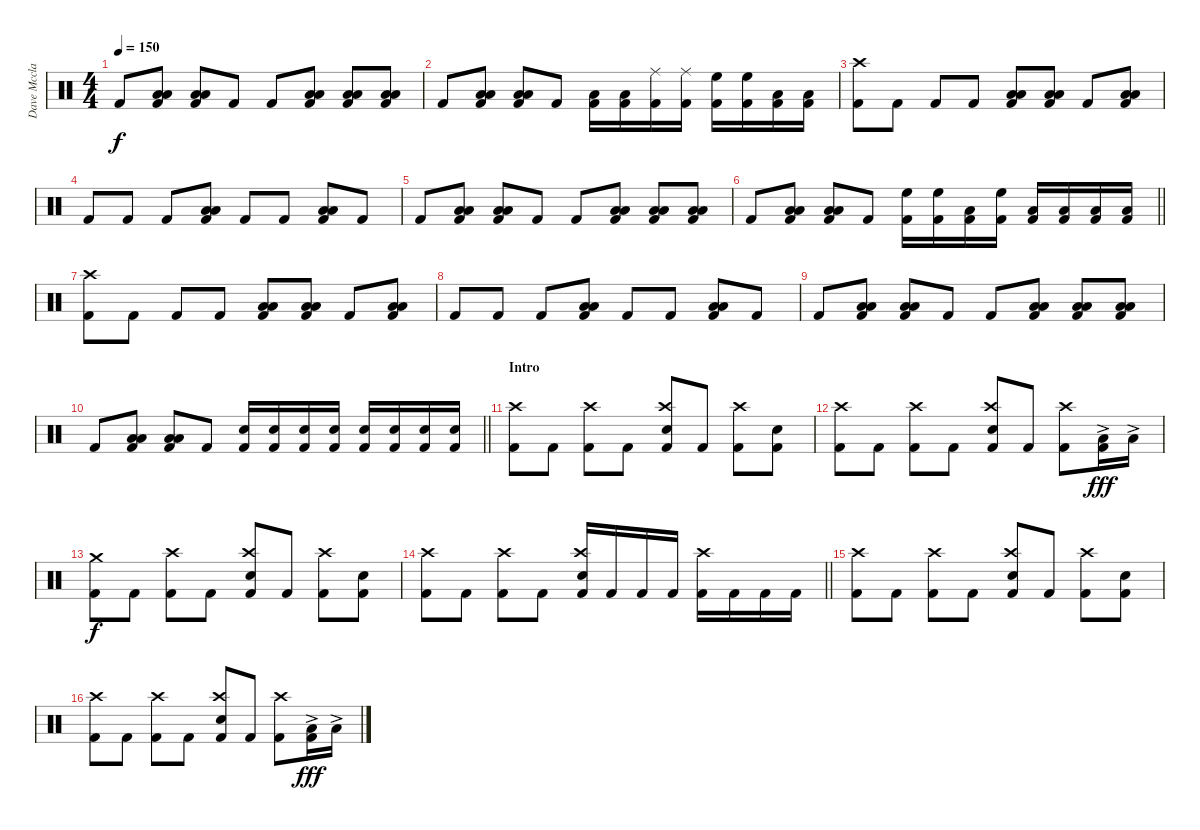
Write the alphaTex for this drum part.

\track ("Dave Mcclain" "Dave Mccla") {instrument percussion}
\staff {score}
\articulation defaults
\ts (4 4)
\tempo 150
\clef neutral
\ks c "Kick (hit) 2".8{dy f}
("Low Tom (hit)" "Low Floor Tom (hit)" "Kick (hit) 2").8 ("Low Tom (hit)" "Low Floor Tom (hit)" "Kick (hit) 2").8 "Kick (hit) 2".8 "Kick (hit) 2".8 ("Low Tom (hit)" "Low Floor Tom (hit)" "Kick (hit) 2").8 ("Low Tom (hit)" "Low Floor Tom (hit)" "Kick (hit) 2").8 ("Low Tom (hit)" "Low Floor Tom (hit)" "Kick (hit) 2").8 |
"Kick (hit) 2".8 ("Low Tom (hit)" "Low Floor Tom (hit)" "Kick (hit) 2").8 ("Low Tom (hit)" "Low Floor Tom (hit)" "Kick (hit) 2").8 "Kick (hit) 2".8 ("Low Tom (hit)" "Kick (hit) 2").16 ("Low Tom (hit)" "Kick (hit) 2").16 ("Ride (middle)" "Kick (hit) 2").16 ("Ride (middle)" "Kick (hit) 2").16 ("High Floor Tom (hit)" "Kick (hit) 2").16 ("High Floor Tom (hit)" "Kick (hit) 2").16 ("Low Tom (hit)" "Kick (hit) 2").16 ("Low Floor Tom (hit)" "Kick (hit) 2").16 |
("Crash high (hit)" "Kick (hit) 2").8 "Kick (hit) 2".8 "Kick (hit) 2".8 "Kick (hit) 2".8 ("Low Tom (hit)" "Low Floor Tom (hit)" "Kick (hit) 2").8 ("Low Tom (hit)" "Low Floor Tom (hit)" "Kick (hit) 2").8 "Kick (hit) 2".8 ("Low Tom (hit)" "Low Floor Tom (hit)" "Kick (hit) 2").8 |
"Kick (hit) 2".8 "Kick (hit) 2".8 "Kick (hit) 2".8 ("Low Tom (hit)" "Low Floor Tom (hit)" "Kick (hit) 2").8 "Kick (hit) 2".8 "Kick (hit) 2".8 ("Low Tom (hit)" "Low Floor Tom (hit)" "Kick (hit) 2").8 "Kick (hit) 2".8 |
"Kick (hit) 2".8 ("Low Tom (hit)" "Low Floor Tom (hit)" "Kick (hit) 2").8 ("Low Tom (hit)" "Low Floor Tom (hit)" "Kick (hit) 2").8 "Kick (hit) 2".8 "Kick (hit) 2".8 ("Low Tom (hit)" "Low Floor Tom (hit)" "Kick (hit) 2").8 ("Low Tom (hit)" "Low Floor Tom (hit)" "Kick (hit) 2").8 ("Low Tom (hit)" "Low Floor Tom (hit)" "Kick (hit) 2").8 |
\barLineRight lightlight "Kick (hit) 2".8
("Low Tom (hit)" "Low Floor Tom (hit)" "Kick (hit) 2").8 ("Low Tom (hit)" "Low Floor Tom (hit)" "Kick (hit) 2").8 "Kick (hit) 2".8 ("High Floor Tom (hit)" "Kick (hit) 2").16 ("High Floor Tom (hit)" "Kick (hit) 2").16 ("Low Tom (hit)" "Kick (hit) 2").16 ("High Floor Tom (hit)" "Kick (hit) 2").16 ("Low Tom (hit)" "Kick (hit) 2").16 ("Low Tom (hit)" "Kick (hit) 2").16 ("Low Floor Tom (hit)" "Kick (hit) 2").16 ("Low Floor Tom (hit)" "Kick (hit) 2").16 |
\section ("" "")
("Crash high (hit)" "Kick (hit) 2").8 "Kick (hit) 2".8 "Kick (hit) 2".8 "Kick (hit) 2".8 ("Low Tom (hit)" "Low Floor Tom (hit)" "Kick (hit) 2").8 ("Low Tom (hit)" "Low Floor Tom (hit)" "Kick (hit) 2").8 "Kick (hit) 2".8 ("Low Tom (hit)" "Low Floor Tom (hit)" "Kick (hit) 2").8 |
"Kick (hit) 2".8 "Kick (hit) 2".8 "Kick (hit) 2".8 ("Low Tom (hit)" "Low Floor Tom (hit)" "Kick (hit) 2").8 "Kick (hit) 2".8 "Kick (hit) 2".8 ("Low Tom (hit)" "Low Floor Tom (hit)" "Kick (hit) 2").8 "Kick (hit) 2".8 |
"Kick (hit) 2".8 ("Low Tom (hit)" "Low Floor Tom (hit)" "Kick (hit) 2").8 ("Low Tom (hit)" "Low Floor Tom (hit)" "Kick (hit) 2").8 "Kick (hit) 2".8 "Kick (hit) 2".8 ("Low Tom (hit)" "Low Floor Tom (hit)" "Kick (hit) 2").8 ("Low Tom (hit)" "Low Floor Tom (hit)" "Kick (hit) 2").8 ("Low Tom (hit)" "Low Floor Tom (hit)" "Kick (hit) 2").8 |
\barLineRight lightlight "Kick (hit) 2".8
("Low Tom (hit)" "Low Floor Tom (hit)" "Kick (hit) 2").8 ("Low Tom (hit)" "Low Floor Tom (hit)" "Kick (hit) 2").8 "Kick (hit) 2".8 ("Electric Snare (hit)" "Kick (hit) 2").16 ("Electric Snare (hit)" "Kick (hit) 2").16 ("Electric Snare (hit)" "Kick (hit) 2").16 ("Electric Snare (hit)" "Kick (hit) 2").16 ("Electric Snare (hit)" "Kick (hit) 2").16 ("Electric Snare (hit)" "Kick (hit) 2").16 ("Electric Snare (hit)" "Kick (hit) 2").16 ("Electric Snare (hit)" "Kick (hit) 2").16 |
\section ("" "Intro")
("Crash high (hit)" "Kick (hit) 2").8 "Kick (hit) 2".8 ("Crash high (hit)" "Kick (hit) 2").8 "Kick (hit) 2".8 ("Crash high (hit)" "Electric Snare (hit)" "Kick (hit) 2").8 "Kick (hit) 2".8 ("Crash high (hit)" "Kick (hit) 2").8 ("Electric Snare (hit)" "Kick (hit) 2").8 |
("Crash high (hit)" "Kick (hit) 2").8 "Kick (hit) 2".8 ("Crash high (hit)" "Kick (hit) 2").8 "Kick (hit) 2".8 ("Crash high (hit)" "Electric Snare (hit)" "Kick (hit) 2").8 "Kick (hit) 2".8 ("Crash high (hit)" "Kick (hit) 2").8 ("Low Tom (hit)"{ac} "Kick (hit) 2").16{dy fff} "Low Floor Tom (hit)"{ac}.16 |
("Crash medium (hit)" "Kick (hit) 2").8{dy f} "Kick (hit) 2".8 ("Crash high (hit)" "Kick (hit) 2").8 "Kick (hit) 2".8 ("Crash high (hit)" "Electric Snare (hit)" "Kick (hit) 2").8 "Kick (hit) 2".8 ("Crash high (hit)" "Kick (hit) 2").8 ("Electric Snare (hit)" "Kick (hit) 2").8 |
\barLineRight lightlight
("Crash high (hit)" "Kick (hit) 2").8 "Kick (hit) 2".8 ("Crash high (hit)" "Kick (hit) 2").8 "Kick (hit) 2".8 ("Crash high (hit)" "Electric Snare (hit)" "Kick (hit) 2").16 "Kick (hit) 2".16 "Kick (hit) 2".16 "Kick (hit) 2".16 ("Crash high (hit)" "Kick (hit) 2").16 "Kick (hit) 2".16 "Kick (hit) 2".16 "Kick (hit) 2".16 |
\section ("" "")
("Crash high (hit)" "Kick (hit) 2").8 "Kick (hit) 2".8 ("Crash high (hit)" "Kick (hit) 2").8 "Kick (hit) 2".8 ("Crash high (hit)" "Electric Snare (hit)" "Kick (hit) 2").8 "Kick (hit) 2".8 ("Crash high (hit)" "Kick (hit) 2").8 ("Electric Snare (hit)" "Kick (hit) 2").8 |
("Crash high (hit)" "Kick (hit) 2").8 "Kick (hit) 2".8 ("Crash high (hit)" "Kick (hit) 2").8 "Kick (hit) 2".8 ("Crash high (hit)" "Electric Snare (hit)" "Kick (hit) 2").8 "Kick (hit) 2".8 ("Crash high (hit)" "Kick (hit) 2").8 ("Low Tom (hit)"{ac} "Kick (hit) 2").16{dy fff} "Low Floor Tom (hit)"{ac}.16
